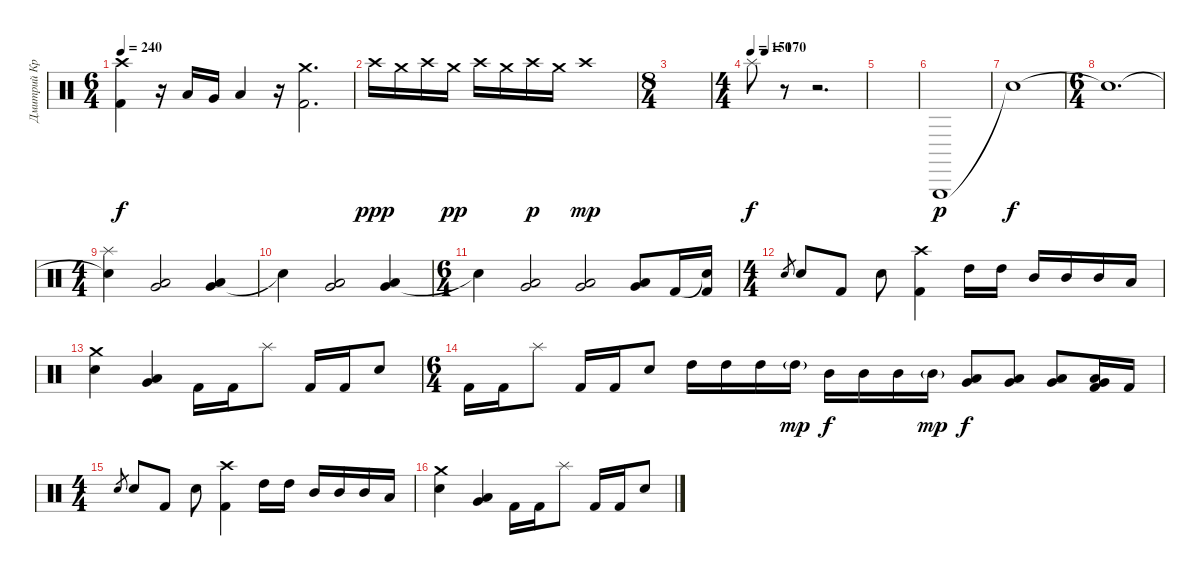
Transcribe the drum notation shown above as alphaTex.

\track ("Дмитрий Кривенков" "Дмитрий Кр") {instrument percussion}
\staff {score}
\articulation defaults
\ts (6 4)
\tempo 240
\clef neutral
\ks c
("Crash high (hit)" "Kick (hit) 2").4{dy f} r.16 "Low Tom (hit)".16 "Very Low Tom (hit)".16 "Low Floor Tom (hit)".4 r.16 ("Crash medium (hit)" "Kick (hit) 2").2{d} |
"Crash high (hit)".16{dy ppp} "Crash medium (hit)".16 "Crash high (hit)".16 "Crash medium (hit)".16{dy pp} "Crash high (hit)".16 "Crash medium (hit)".16 "Crash high (hit)".16{dy p} "Crash medium (hit)".16 "Crash high (hit)".1{dy mp} |
\ts (8 4)
|
\ts (4 4)
\tempo 150
\tempo (170 0.125)
"Splash (hit)".8{dy f} r.8 r.2{d} |
|
"Triangle (hit)".1{dy p volume 15} |
"Snare (hit)"{t}.1{dy f} |
\ts (6 4)
"Snare (hit)"{t}.1{d} |
\ts (4 4)
("Snare (hit)"{t} "Splash (hit)").4 ("Very Low Tom (hit)" "Low Floor Tom (hit)").2 ("Very Low Tom (hit)" "Low Floor Tom (hit)").4 |
"Snare (hit)"{t}.4 ("Very Low Tom (hit)" "Low Floor Tom (hit)").2 ("Very Low Tom (hit)" "Low Floor Tom (hit)").4 |
\ts (6 4)
"Snare (hit)"{t}.4 ("Very Low Tom (hit)" "Low Floor Tom (hit)").2 ("Very Low Tom (hit)" "Low Floor Tom (hit)").2 ("Very Low Tom (hit)" "Low Floor Tom (hit)").8 "Kick (hit) 2".16 ("Snare (hit)"{t} "Kick (hit) 2").16 |
\ts (4 4)
"Electric Snare (hit)".8{gr} "Electric Snare (hit)".8 "Kick (hit) 2".8 "Electric Snare (hit)".8 ("Crash high (hit)" "Kick (hit) 2").4 "High Tom (hit)".16 "High Tom (hit)".16 "Mid Tom (hit)".16 "Mid Tom (hit)".16 "Mid Tom (hit)".16 "Low Tom (hit)".16 |
("Crash medium (hit)" "Electric Snare (hit)").4 ("Low Floor Tom (hit)" "Very Low Tom (hit)").4 "Kick (hit) 2".16 "Kick (hit) 2".16 "Splash (hit)".8 "Kick (hit) 2".16 "Kick (hit) 2".16 "Electric Snare (hit)".8 |
\ts (6 4)
"Kick (hit) 2".16 "Kick (hit) 2".16 "Splash (hit)".8 "Kick (hit) 2".16 "Kick (hit) 2".16 "Electric Snare (hit)".8 "High Tom (hit)".16 "High Tom (hit)".16 "High Tom (hit)".16 "High Tom (hit)"{g}.16{dy mp} "Mid Tom (hit)".16{dy f} "Mid Tom (hit)".16 "Mid Tom (hit)".16 "Mid Tom (hit)"{g}.16{dy mp} ("Low Tom (hit)" "Very Low Tom (hit)").8{dy f} ("Low Tom (hit)" "Very Low Tom (hit)").8 ("Low Tom (hit)" "Very Low Tom (hit)").8 ("Low Tom (hit)" "Very Low Tom (hit)" "Kick (hit) 2").16 "Kick (hit) 2".16 |
\ts (4 4)
"Electric Snare (hit)".8{gr} "Electric Snare (hit)".8 "Kick (hit) 2".8 "Electric Snare (hit)".8 ("Crash high (hit)" "Kick (hit) 2").4 "High Tom (hit)".16 "High Tom (hit)".16 "Mid Tom (hit)".16 "Mid Tom (hit)".16 "Mid Tom (hit)".16 "Low Tom (hit)".16 |
("Crash medium (hit)" "Electric Snare (hit)").4 ("Low Floor Tom (hit)" "Very Low Tom (hit)").4 "Kick (hit) 2".16 "Kick (hit) 2".16 "Splash (hit)".8 "Kick (hit) 2".16 "Kick (hit) 2".16 "Electric Snare (hit)".8
